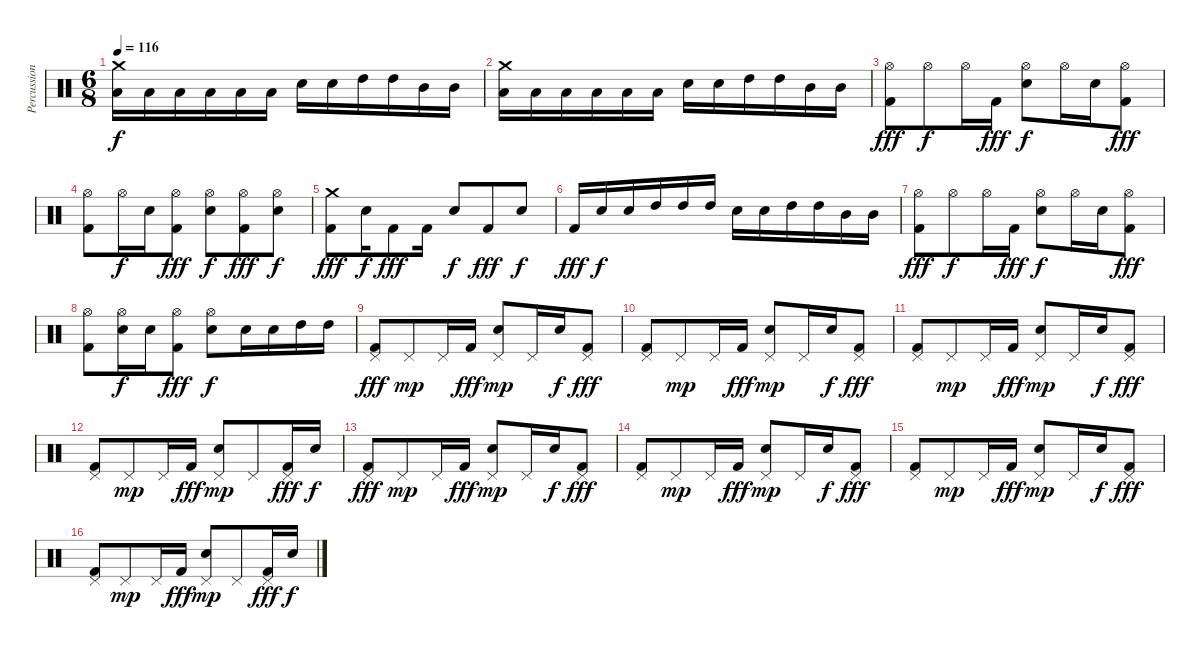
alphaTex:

\track ("Percussions" "Percussion") {instrument percussion}
\staff {score}
\articulation defaults
\ts (6 8)
\tempo 116
\clef neutral
\ks c
("Crash medium (hit)" "Low Tom (hit)").16{dy f} "Low Tom (hit)".16 "Low Tom (hit)".16 "Low Tom (hit)".16 "Low Tom (hit)".16 "Low Tom (hit)".16 "Snare (hit) 2".16 "Snare (hit) 2".16 "High Tom (hit)".16 "High Tom (hit)".16 "Mid Tom (hit)".16 "Mid Tom (hit)".16 |
("Crash medium (hit)" "Low Tom (hit)").16 "Low Tom (hit)".16 "Low Tom (hit)".16 "Low Tom (hit)".16 "Low Tom (hit)".16 "Low Tom (hit)".16 "Snare (hit) 2".16 "Snare (hit) 2".16 "High Tom (hit)".16 "High Tom (hit)".16 "Mid Tom (hit)".16 "Mid Tom (hit)".16 |
("Hi-Hat (open)" "Kick (hit) 2").8{dy fff} "Hi-Hat (open)".8{dy f} "Hi-Hat (open)".16 "Kick (hit) 2".16{dy fff} ("Hi-Hat (open)" "Snare (hit) 2").8{dy f} "Hi-Hat (open)".16 "Snare (hit) 2".16 ("Hi-Hat (open)" "Kick (hit) 2").8{dy fff} |
("Hi-Hat (open)" "Kick (hit) 2").8 "Hi-Hat (open)".16{dy f} "Snare (hit) 2".16 ("Hi-Hat (open)" "Kick (hit) 2").8{dy fff} ("Hi-Hat (open)" "Snare (hit) 2").8{dy f} ("Hi-Hat (open)" "Kick (hit) 2").8{dy fff} ("Hi-Hat (open)" "Snare (hit) 2").8{dy f} |
("Crash medium (hit)" "Kick (hit) 2").8{dy fff} "Snare (hit) 2".16{dy f} "Kick (hit) 2".8{dy fff} "Kick (hit) 2".16 "Snare (hit) 2".8{dy f} "Kick (hit) 2".8{dy fff} "Snare (hit) 2".8{dy f} |
"Kick (hit) 2".16{dy fff} "Snare (hit) 2".16{dy f} "Snare (hit) 2".16 "High Tom (hit)".16 "High Tom (hit)".16 "High Tom (hit)".16 "Snare (hit) 2".16 "Snare (hit) 2".16 "High Tom (hit)".16 "High Tom (hit)".16 "Mid Tom (hit)".16 "Mid Tom (hit)".16 |
("Hi-Hat (open)" "Kick (hit) 2").8{dy fff} "Hi-Hat (open)".8{dy f} "Hi-Hat (open)".16 "Kick (hit) 2".16{dy fff} ("Hi-Hat (open)" "Snare (hit) 2").8{dy f} "Hi-Hat (open)".16 "Snare (hit) 2".16 ("Hi-Hat (open)" "Kick (hit) 2").8{dy fff} |
("Hi-Hat (open)" "Kick (hit) 2").8 ("Hi-Hat (open)" "Snare (hit) 2").16{dy f} "Snare (hit) 2".16 ("Hi-Hat (open)" "Kick (hit) 2").8{dy fff} ("Hi-Hat (open)" "Snare (hit) 2").8{dy f} "Snare (hit) 2".16 "Snare (hit) 2".16 "High Tom (hit)".16 "High Tom (hit)".16 |
("Pedal Hi-Hat (hit)" "Kick (hit) 2").8{dy fff} "Pedal Hi-Hat (hit)".8{dy mp} "Pedal Hi-Hat (hit)".16 "Kick (hit) 2".16{dy fff} ("Pedal Hi-Hat (hit)" "Snare (hit) 2").8{dy mp} "Pedal Hi-Hat (hit)".16 "Snare (hit) 2".16{dy f} ("Pedal Hi-Hat (hit)" "Kick (hit) 2").8{dy fff} |
("Pedal Hi-Hat (hit)" "Kick (hit) 2").8 "Pedal Hi-Hat (hit)".8{dy mp} "Pedal Hi-Hat (hit)".16 "Kick (hit) 2".16{dy fff} ("Pedal Hi-Hat (hit)" "Snare (hit) 2").8{dy mp} "Pedal Hi-Hat (hit)".16 "Snare (hit) 2".16{dy f} ("Pedal Hi-Hat (hit)" "Kick (hit) 2").8{dy fff} |
("Pedal Hi-Hat (hit)" "Kick (hit) 2").8 "Pedal Hi-Hat (hit)".8{dy mp} "Pedal Hi-Hat (hit)".16 "Kick (hit) 2".16{dy fff} ("Pedal Hi-Hat (hit)" "Snare (hit) 2").8{dy mp} "Pedal Hi-Hat (hit)".16 "Snare (hit) 2".16{dy f} ("Pedal Hi-Hat (hit)" "Kick (hit) 2").8{dy fff} |
("Pedal Hi-Hat (hit)" "Kick (hit) 2").8 "Pedal Hi-Hat (hit)".8{dy mp} "Pedal Hi-Hat (hit)".16 "Kick (hit) 2".16{dy fff} ("Pedal Hi-Hat (hit)" "Snare (hit) 2").8{dy mp} "Pedal Hi-Hat (hit)".8 ("Pedal Hi-Hat (hit)" "Kick (hit) 2").16{dy fff} "Snare (hit) 2".16{dy f} |
("Pedal Hi-Hat (hit)" "Kick (hit) 2").8{dy fff} "Pedal Hi-Hat (hit)".8{dy mp} "Pedal Hi-Hat (hit)".16 "Kick (hit) 2".16{dy fff} ("Pedal Hi-Hat (hit)" "Snare (hit) 2").8{dy mp} "Pedal Hi-Hat (hit)".16 "Snare (hit) 2".16{dy f} ("Pedal Hi-Hat (hit)" "Kick (hit) 2").8{dy fff} |
("Pedal Hi-Hat (hit)" "Kick (hit) 2").8 "Pedal Hi-Hat (hit)".8{dy mp} "Pedal Hi-Hat (hit)".16 "Kick (hit) 2".16{dy fff} ("Pedal Hi-Hat (hit)" "Snare (hit) 2").8{dy mp} "Pedal Hi-Hat (hit)".16 "Snare (hit) 2".16{dy f} ("Pedal Hi-Hat (hit)" "Kick (hit) 2").8{dy fff} |
("Pedal Hi-Hat (hit)" "Kick (hit) 2").8 "Pedal Hi-Hat (hit)".8{dy mp} "Pedal Hi-Hat (hit)".16 "Kick (hit) 2".16{dy fff} ("Pedal Hi-Hat (hit)" "Snare (hit) 2").8{dy mp} "Pedal Hi-Hat (hit)".16 "Snare (hit) 2".16{dy f} ("Pedal Hi-Hat (hit)" "Kick (hit) 2").8{dy fff} |
("Pedal Hi-Hat (hit)" "Kick (hit) 2").8 "Pedal Hi-Hat (hit)".8{dy mp} "Pedal Hi-Hat (hit)".16 "Kick (hit) 2".16{dy fff} ("Pedal Hi-Hat (hit)" "Snare (hit) 2").8{dy mp} "Pedal Hi-Hat (hit)".8 ("Pedal Hi-Hat (hit)" "Kick (hit) 2").16{dy fff} "Snare (hit) 2".16{dy f}
